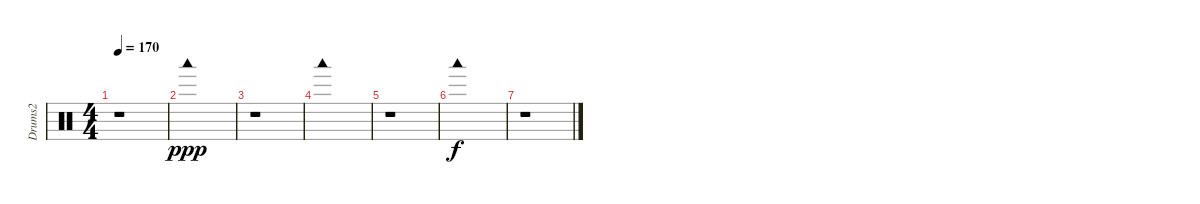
\track ("Drums2" "Drums2") {instrument percussion}
\staff {score}
\articulation defaults
\ts (4 4)
\tempo 170
\clef neutral
\ks c
r.1{dy pp} |
"Woodblock low (hit)".1{dy ppp} |
r.1 |
"Woodblock low (hit)".1 |
r.1 |
"Woodblock low (hit)".1{dy f} |
r.1
